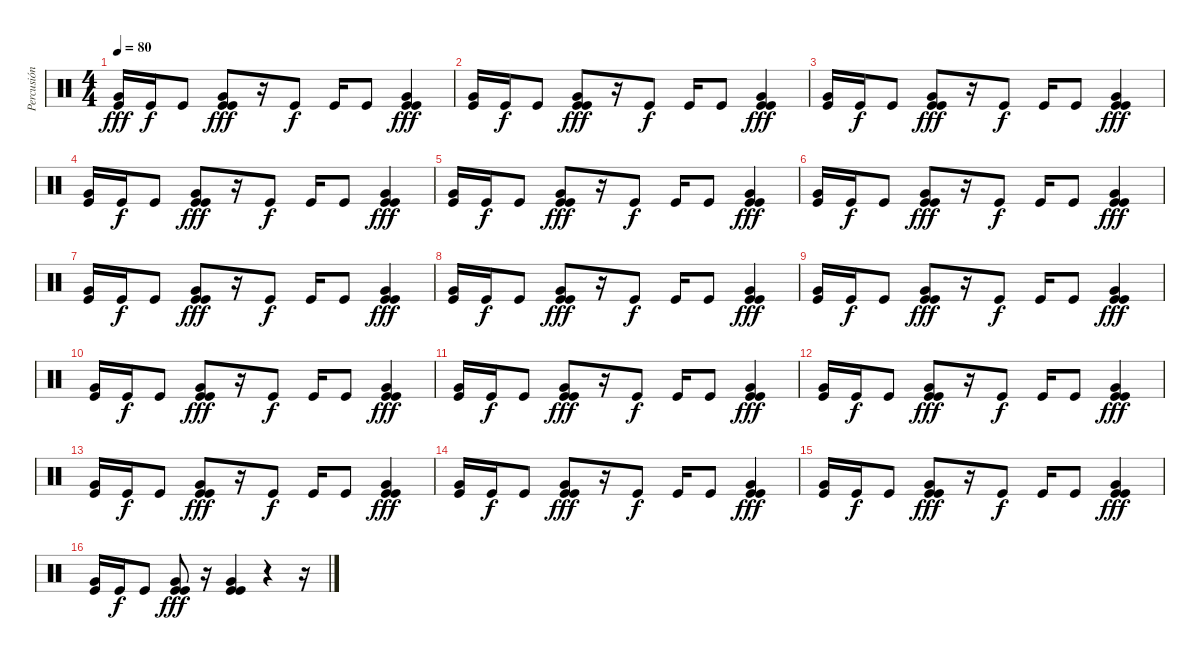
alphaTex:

\track ("Percusión" "Percusión") {instrument percussion}
\staff {score}
\articulation defaults
\ts (4 4)
\tempo 80
\clef neutral
\ks c
("Kick (hit)" "Very Low Tom (hit)").16{dy fff} "Kick (hit)".16{dy f} "Kick (hit)".8 ("Kick (hit)" "Very Low Tom (hit)" "Kick (hit)").8{dy fff} r.16 "Kick (hit)".8{dy f} "Kick (hit)".16 "Kick (hit)".8 ("Kick (hit)" "Very Low Tom (hit)" "Kick (hit)").4{dy fff} |
("Kick (hit)" "Very Low Tom (hit)").16 "Kick (hit)".16{dy f} "Kick (hit)".8 ("Kick (hit)" "Very Low Tom (hit)" "Kick (hit)").8{dy fff} r.16 "Kick (hit)".8{dy f} "Kick (hit)".16 "Kick (hit)".8 ("Kick (hit)" "Very Low Tom (hit)" "Kick (hit)").4{dy fff} |
("Kick (hit)" "Very Low Tom (hit)").16 "Kick (hit)".16{dy f} "Kick (hit)".8 ("Kick (hit)" "Very Low Tom (hit)" "Kick (hit)").8{dy fff} r.16 "Kick (hit)".8{dy f} "Kick (hit)".16 "Kick (hit)".8 ("Kick (hit)" "Very Low Tom (hit)" "Kick (hit)").4{dy fff} |
("Kick (hit)" "Very Low Tom (hit)").16 "Kick (hit)".16{dy f} "Kick (hit)".8 ("Kick (hit)" "Very Low Tom (hit)" "Kick (hit)").8{dy fff} r.16 "Kick (hit)".8{dy f} "Kick (hit)".16 "Kick (hit)".8 ("Kick (hit)" "Very Low Tom (hit)" "Kick (hit)").4{dy fff} |
("Kick (hit)" "Very Low Tom (hit)").16 "Kick (hit)".16{dy f} "Kick (hit)".8 ("Kick (hit)" "Very Low Tom (hit)" "Kick (hit)").8{dy fff} r.16 "Kick (hit)".8{dy f} "Kick (hit)".16 "Kick (hit)".8 ("Kick (hit)" "Very Low Tom (hit)" "Kick (hit)").4{dy fff} |
("Kick (hit)" "Very Low Tom (hit)").16 "Kick (hit)".16{dy f} "Kick (hit)".8 ("Kick (hit)" "Very Low Tom (hit)" "Kick (hit)").8{dy fff} r.16 "Kick (hit)".8{dy f} "Kick (hit)".16 "Kick (hit)".8 ("Kick (hit)" "Very Low Tom (hit)" "Kick (hit)").4{dy fff} |
("Kick (hit)" "Very Low Tom (hit)").16 "Kick (hit)".16{dy f} "Kick (hit)".8 ("Kick (hit)" "Very Low Tom (hit)" "Kick (hit)").8{dy fff} r.16 "Kick (hit)".8{dy f} "Kick (hit)".16 "Kick (hit)".8 ("Kick (hit)" "Very Low Tom (hit)" "Kick (hit)").4{dy fff} |
("Kick (hit)" "Very Low Tom (hit)").16 "Kick (hit)".16{dy f} "Kick (hit)".8 ("Kick (hit)" "Very Low Tom (hit)" "Kick (hit)").8{dy fff} r.16 "Kick (hit)".8{dy f} "Kick (hit)".16 "Kick (hit)".8 ("Kick (hit)" "Very Low Tom (hit)" "Kick (hit)").4{dy fff} |
("Kick (hit)" "Very Low Tom (hit)").16 "Kick (hit)".16{dy f} "Kick (hit)".8 ("Kick (hit)" "Very Low Tom (hit)" "Kick (hit)").8{dy fff} r.16 "Kick (hit)".8{dy f} "Kick (hit)".16 "Kick (hit)".8 ("Kick (hit)" "Very Low Tom (hit)" "Kick (hit)").4{dy fff} |
("Kick (hit)" "Very Low Tom (hit)").16 "Kick (hit)".16{dy f} "Kick (hit)".8 ("Kick (hit)" "Very Low Tom (hit)" "Kick (hit)").8{dy fff} r.16 "Kick (hit)".8{dy f} "Kick (hit)".16 "Kick (hit)".8 ("Kick (hit)" "Very Low Tom (hit)" "Kick (hit)").4{dy fff} |
("Kick (hit)" "Very Low Tom (hit)").16 "Kick (hit)".16{dy f} "Kick (hit)".8 ("Kick (hit)" "Very Low Tom (hit)" "Kick (hit)").8{dy fff} r.16 "Kick (hit)".8{dy f} "Kick (hit)".16 "Kick (hit)".8 ("Kick (hit)" "Very Low Tom (hit)" "Kick (hit)").4{dy fff} |
("Kick (hit)" "Very Low Tom (hit)").16 "Kick (hit)".16{dy f} "Kick (hit)".8 ("Kick (hit)" "Very Low Tom (hit)" "Kick (hit)").8{dy fff} r.16 "Kick (hit)".8{dy f} "Kick (hit)".16 "Kick (hit)".8 ("Kick (hit)" "Very Low Tom (hit)" "Kick (hit)").4{dy fff} |
("Kick (hit)" "Very Low Tom (hit)").16 "Kick (hit)".16{dy f} "Kick (hit)".8 ("Kick (hit)" "Very Low Tom (hit)" "Kick (hit)").8{dy fff} r.16 "Kick (hit)".8{dy f} "Kick (hit)".16 "Kick (hit)".8 ("Kick (hit)" "Very Low Tom (hit)" "Kick (hit)").4{dy fff} |
("Kick (hit)" "Very Low Tom (hit)").16 "Kick (hit)".16{dy f} "Kick (hit)".8 ("Kick (hit)" "Very Low Tom (hit)" "Kick (hit)").8{dy fff} r.16 "Kick (hit)".8{dy f} "Kick (hit)".16 "Kick (hit)".8 ("Kick (hit)" "Very Low Tom (hit)" "Kick (hit)").4{dy fff} |
("Kick (hit)" "Very Low Tom (hit)").16 "Kick (hit)".16{dy f} "Kick (hit)".8 ("Kick (hit)" "Very Low Tom (hit)" "Kick (hit)").8{dy fff} r.16 "Kick (hit)".8{dy f} "Kick (hit)".16 "Kick (hit)".8 ("Kick (hit)" "Very Low Tom (hit)" "Kick (hit)").4{dy fff} |
("Kick (hit)" "Very Low Tom (hit)").16 "Kick (hit)".16{dy f} "Kick (hit)".8 ("Kick (hit)" "Very Low Tom (hit)" "Kick (hit)").8{dy fff} r.16 ("Kick (hit)" "Very Low Tom (hit)" "Kick (hit)").4 r.4 r.16
